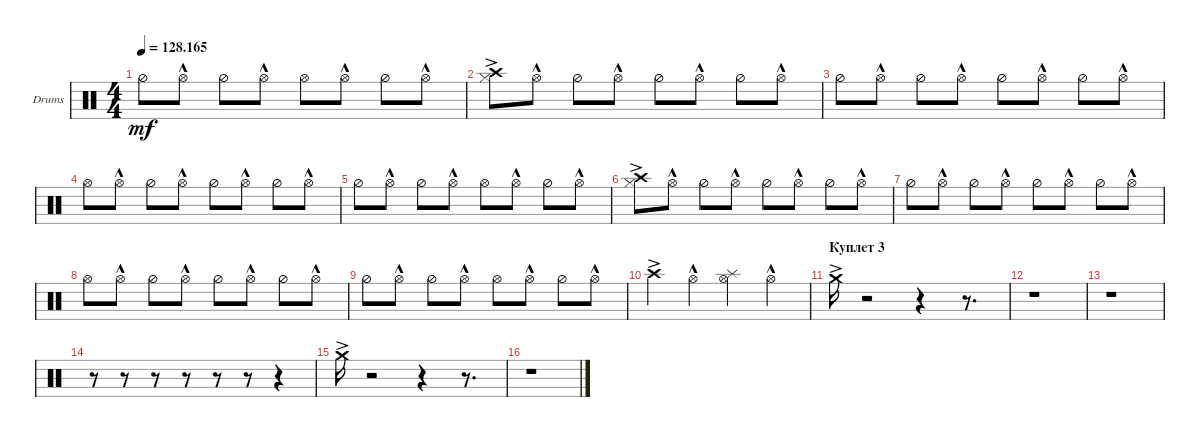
\defaultSystemsLayout 4
\bracketExtendMode groupsimilarinstruments
\firstSystemTrackNameOrientation horizontal
\otherSystemsTrackNameOrientation horizontal
\track ("Drumkit" "Drums") {instrument percussion}
\staff {score}
\articulation defaults
\ts (4 4)
\tempo
128.165
\accidentals auto
\clef neutral
\ottava regular
\simile none
\ks c "Hi-Hat (half)".8{dy mf} "Hi-Hat (open)"{hac}.8 "Hi-Hat (half)".8 "Hi-Hat (open)"{hac}.8 "Hi-Hat (open)".8 "Hi-Hat (open)"{hac}.8 "Hi-Hat (half)".8 "Hi-Hat (open)"{hac}.8
|
("Hi-Hat (closed)" "Crash high (hit)"{ac}).8 "Hi-Hat (open)"{hac}.8 "Hi-Hat (half)".8 "Hi-Hat (open)"{hac}.8 "Hi-Hat (half)".8 "Hi-Hat (open)"{hac}.8 "Hi-Hat (half)".8 "Hi-Hat (open)"{hac}.8 |
"Hi-Hat (half)".8 "Hi-Hat (open)"{hac}.8 "Hi-Hat (half)".8 "Hi-Hat (open)"{hac}.8 "Hi-Hat (half)".8 "Hi-Hat (open)"{hac}.8 "Hi-Hat (half)".8 "Hi-Hat (open)"{hac}.8 |
"Hi-Hat (open)".8 "Hi-Hat (open)"{hac}.8 "Hi-Hat (half)".8 "Hi-Hat (open)"{hac}.8 "Hi-Hat (half)".8 "Hi-Hat (open)"{hac}.8 "Hi-Hat (half)".8 "Hi-Hat (open)"{hac}.8 |
"Hi-Hat (half)".8 "Hi-Hat (open)"{hac}.8 "Hi-Hat (half)".8 "Hi-Hat (open)"{hac}.8 "Hi-Hat (open)".8 "Hi-Hat (open)"{hac}.8 "Hi-Hat (half)".8 "Hi-Hat (open)"{hac}.8 |
("Hi-Hat (closed)" "Crash high (hit)"{ac}).8 "Hi-Hat (open)"{hac}.8 "Hi-Hat (half)".8 "Hi-Hat (open)"{hac}.8 "Hi-Hat (half)".8 "Hi-Hat (open)"{hac}.8 "Hi-Hat (half)".8 "Hi-Hat (open)"{hac}.8 |
"Hi-Hat (half)".8 "Hi-Hat (open)"{hac}.8 "Hi-Hat (half)".8 "Hi-Hat (open)"{hac}.8 "Hi-Hat (half)".8 "Hi-Hat (open)"{hac}.8 "Hi-Hat (half)".8 "Hi-Hat (open)"{hac}.8 |
"Hi-Hat (open)".8 "Hi-Hat (open)"{hac}.8 "Hi-Hat (half)".8 "Hi-Hat (open)"{hac}.8 "Hi-Hat (half)".8 "Hi-Hat (open)"{hac}.8 "Hi-Hat (half)".8 "Hi-Hat (open)"{hac}.8 |
"Hi-Hat (half)".8 "Hi-Hat (open)"{hac}.8 "Hi-Hat (half)".8 "Hi-Hat (open)"{hac}.8 "Hi-Hat (open)".8 "Hi-Hat (open)"{hac}.8 "Hi-Hat (half)".8 "Hi-Hat (open)"{hac}.8 |
"Crash high (hit)"{ac}.4 "Hi-Hat (open)"{hac}.4 ("Hi-Hat (open)" "Splash (hit)").4 "Hi-Hat (open)"{hac}.4 |
\section ("" "Куплет 3")
"Crash medium (hit)"{ac}.16 r.2 r.4 r.8{d} |
r.1 |
r.1 |
r.8 r.8 r.8 r.8 r.8 r.8 r.4 |
"Crash medium (hit)"{ac}.16 r.2 r.4 r.8{d} |
r.1
